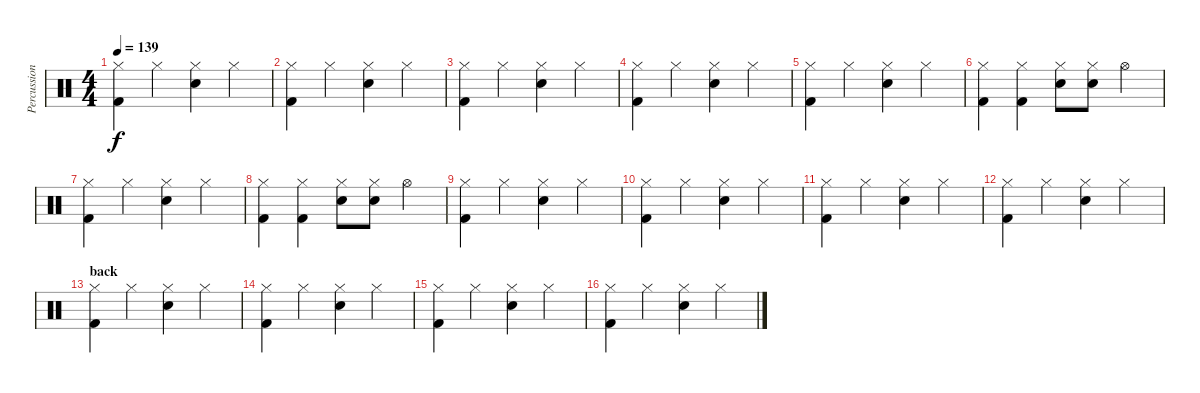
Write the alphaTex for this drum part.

\track ("Percussion" "Percussion") {instrument percussion}
\staff {score}
\articulation defaults
\ts (4 4)
\tempo 139
\clef neutral
\ks c
("Hi-Hat (closed)" "Kick (hit) 2").4{dy f} "Hi-Hat (closed)".4 ("Hi-Hat (closed)" "Snare (hit) 2").4 "Hi-Hat (closed)".4 |
("Hi-Hat (closed)" "Kick (hit) 2").4 "Hi-Hat (closed)".4 ("Hi-Hat (closed)" "Snare (hit) 2").4 "Hi-Hat (closed)".4 |
("Hi-Hat (closed)" "Kick (hit) 2").4 "Hi-Hat (closed)".4 ("Hi-Hat (closed)" "Snare (hit) 2").4 "Hi-Hat (closed)".4 |
("Hi-Hat (closed)" "Kick (hit) 2").4 "Hi-Hat (closed)".4 ("Hi-Hat (closed)" "Snare (hit) 2").4 "Hi-Hat (closed)".4 |
("Hi-Hat (closed)" "Kick (hit) 2").4 "Hi-Hat (closed)".4 ("Hi-Hat (closed)" "Snare (hit) 2").4 "Hi-Hat (closed)".4 |
("Hi-Hat (closed)" "Kick (hit) 2").4 ("Hi-Hat (closed)" "Kick (hit) 2").4 ("Hi-Hat (closed)" "Snare (hit) 2").8 ("Hi-Hat (closed)" "Snare (hit) 2").8 "Hi-Hat (open)".4 |
("Hi-Hat (closed)" "Kick (hit) 2").4 "Hi-Hat (closed)".4 ("Hi-Hat (closed)" "Snare (hit) 2").4 "Hi-Hat (closed)".4 |
("Hi-Hat (closed)" "Kick (hit) 2").4 ("Hi-Hat (closed)" "Kick (hit) 2").4 ("Hi-Hat (closed)" "Snare (hit) 2").8 ("Hi-Hat (closed)" "Snare (hit) 2").8 "Hi-Hat (open)".4 |
("Hi-Hat (closed)" "Kick (hit) 2").4 "Hi-Hat (closed)".4 ("Hi-Hat (closed)" "Snare (hit) 2").4 "Hi-Hat (closed)".4 |
("Hi-Hat (closed)" "Kick (hit) 2").4 "Hi-Hat (closed)".4 ("Hi-Hat (closed)" "Snare (hit) 2").4 "Hi-Hat (closed)".4 |
("Hi-Hat (closed)" "Kick (hit) 2").4 "Hi-Hat (closed)".4 ("Hi-Hat (closed)" "Snare (hit) 2").4 "Hi-Hat (closed)".4 |
("Hi-Hat (closed)" "Kick (hit) 2").4 "Hi-Hat (closed)".4 ("Hi-Hat (closed)" "Snare (hit) 2").4 "Hi-Hat (closed)".4 |
\section ("" "back")
("Hi-Hat (closed)" "Kick (hit) 2").4 "Hi-Hat (closed)".4 ("Hi-Hat (closed)" "Snare (hit) 2").4 "Hi-Hat (closed)".4 |
("Hi-Hat (closed)" "Kick (hit) 2").4 "Hi-Hat (closed)".4 ("Hi-Hat (closed)" "Snare (hit) 2").4 "Hi-Hat (closed)".4 |
("Hi-Hat (closed)" "Kick (hit) 2").4 "Hi-Hat (closed)".4 ("Hi-Hat (closed)" "Snare (hit) 2").4 "Hi-Hat (closed)".4 |
("Hi-Hat (closed)" "Kick (hit) 2").4 "Hi-Hat (closed)".4 ("Hi-Hat (closed)" "Snare (hit) 2").4 "Hi-Hat (closed)".4
